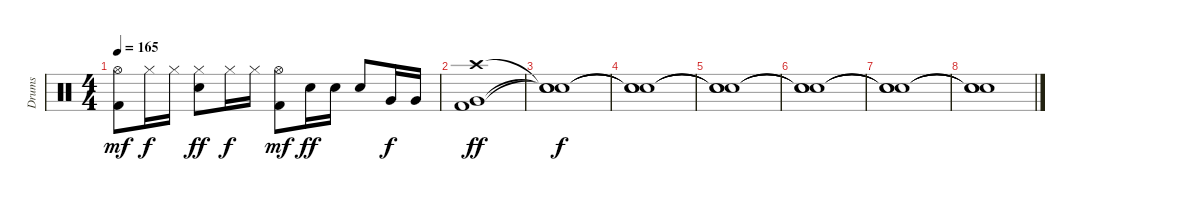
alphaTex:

\track ("Drums" "Drums") {instrument percussion}
\staff {score}
\articulation defaults
\ts (4 4)
\tempo 165
\clef neutral
\ks c
("Hi-Hat (open)" "Kick (hit) 2").8{dy mf} "Hi-Hat (closed)".16{dy f} "Hi-Hat (closed)".16 ("Hi-Hat (closed)" "Electric Snare (hit)").8{dy ff} "Hi-Hat (closed)".16{dy f} "Hi-Hat (closed)".16 ("Hi-Hat (open)" "Kick (hit) 2").8{dy mf} "Electric Snare (hit)".16{dy ff} "Electric Snare (hit)".16 "Electric Snare (hit)".8 "Very Low Tom (hit)".16{dy f} "Very Low Tom (hit)".16 |
("Crash high (hit)" "Very Low Tom (hit)" "Kick (hit) 2").1{dy ff} |
("Snare (hit)"{t} "Snare (hit)"{t} "Snare (hit)"{t}).1{dy f} |
("Snare (hit)"{t} "Snare (hit)"{t} "Snare (hit)"{t}).1 |
("Snare (hit)"{t} "Snare (hit)"{t} "Snare (hit)"{t}).1 |
("Snare (hit)"{t} "Snare (hit)"{t} "Snare (hit)"{t}).1 |
("Snare (hit)"{t} "Snare (hit)"{t} "Snare (hit)"{t}).1 |
("Snare (hit)"{t} "Snare (hit)"{t} "Snare (hit)"{t}).1
